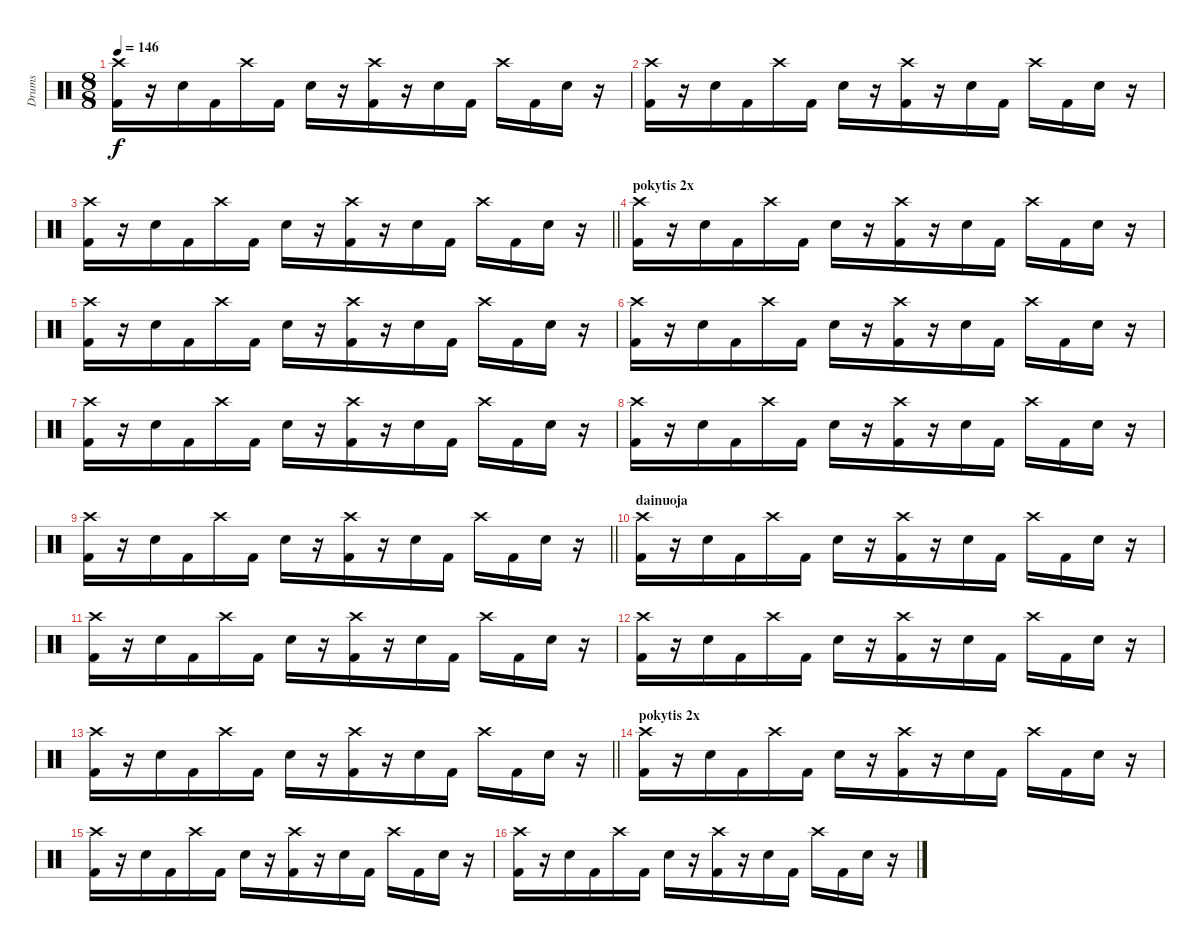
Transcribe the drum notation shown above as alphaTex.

\track ("Drums" "Drums") {instrument percussion}
\staff {score}
\articulation defaults
\ts (8 8)
\tempo 146
\clef neutral
\ks c
("Crash high (hit)" "Kick (hit) 2").16{dy f} r.16 "Snare (hit) 2".16 "Kick (hit) 2".16 "Crash high (hit)".16 "Kick (hit) 2".16 "Snare (hit) 2".16 r.16 ("Crash high (hit)" "Kick (hit) 2").16 r.16 "Snare (hit) 2".16 "Kick (hit) 2".16 "Crash high (hit)".16 "Kick (hit) 2".16 "Snare (hit) 2".16 r.16 |
("Crash high (hit)" "Kick (hit) 2").16 r.16 "Snare (hit) 2".16 "Kick (hit) 2".16 "Crash high (hit)".16 "Kick (hit) 2".16 "Snare (hit) 2".16 r.16 ("Crash high (hit)" "Kick (hit) 2").16 r.16 "Snare (hit) 2".16 "Kick (hit) 2".16 "Crash high (hit)".16 "Kick (hit) 2".16 "Snare (hit) 2".16 r.16 |
\barLineRight lightlight
("Crash high (hit)" "Kick (hit) 2").16 r.16 "Snare (hit) 2".16 "Kick (hit) 2".16 "Crash high (hit)".16 "Kick (hit) 2".16 "Snare (hit) 2".16 r.16 ("Crash high (hit)" "Kick (hit) 2").16 r.16 "Snare (hit) 2".16 "Kick (hit) 2".16 "Crash high (hit)".16 "Kick (hit) 2".16 "Snare (hit) 2".16 r.16 |
\section ("" "pokytis 2x")
("Crash high (hit)" "Kick (hit) 2").16 r.16 "Snare (hit) 2".16 "Kick (hit) 2".16 "Crash high (hit)".16 "Kick (hit) 2".16 "Snare (hit) 2".16 r.16 ("Crash high (hit)" "Kick (hit) 2").16 r.16 "Snare (hit) 2".16 "Kick (hit) 2".16 "Crash high (hit)".16 "Kick (hit) 2".16 "Snare (hit) 2".16 r.16 |
("Crash high (hit)" "Kick (hit) 2").16 r.16 "Snare (hit) 2".16 "Kick (hit) 2".16 "Crash high (hit)".16 "Kick (hit) 2".16 "Snare (hit) 2".16 r.16 ("Crash high (hit)" "Kick (hit) 2").16 r.16 "Snare (hit) 2".16 "Kick (hit) 2".16 "Crash high (hit)".16 "Kick (hit) 2".16 "Snare (hit) 2".16 r.16 |
("Crash high (hit)" "Kick (hit) 2").16 r.16 "Snare (hit) 2".16 "Kick (hit) 2".16 "Crash high (hit)".16 "Kick (hit) 2".16 "Snare (hit) 2".16 r.16 ("Crash high (hit)" "Kick (hit) 2").16 r.16 "Snare (hit) 2".16 "Kick (hit) 2".16 "Crash high (hit)".16 "Kick (hit) 2".16 "Snare (hit) 2".16 r.16 |
("Crash high (hit)" "Kick (hit) 2").16 r.16 "Snare (hit) 2".16 "Kick (hit) 2".16 "Crash high (hit)".16 "Kick (hit) 2".16 "Snare (hit) 2".16 r.16 ("Crash high (hit)" "Kick (hit) 2").16 r.16 "Snare (hit) 2".16 "Kick (hit) 2".16 "Crash high (hit)".16 "Kick (hit) 2".16 "Snare (hit) 2".16 r.16 |
("Crash high (hit)" "Kick (hit) 2").16 r.16 "Snare (hit) 2".16 "Kick (hit) 2".16 "Crash high (hit)".16 "Kick (hit) 2".16 "Snare (hit) 2".16 r.16 ("Crash high (hit)" "Kick (hit) 2").16 r.16 "Snare (hit) 2".16 "Kick (hit) 2".16 "Crash high (hit)".16 "Kick (hit) 2".16 "Snare (hit) 2".16 r.16 |
\barLineRight lightlight
("Crash high (hit)" "Kick (hit) 2").16 r.16 "Snare (hit) 2".16 "Kick (hit) 2".16 "Crash high (hit)".16 "Kick (hit) 2".16 "Snare (hit) 2".16 r.16 ("Crash high (hit)" "Kick (hit) 2").16 r.16 "Snare (hit) 2".16 "Kick (hit) 2".16 "Crash high (hit)".16 "Kick (hit) 2".16 "Snare (hit) 2".16 r.16 |
\section ("" "dainuoja")
("Crash high (hit)" "Kick (hit) 2").16 r.16 "Snare (hit) 2".16 "Kick (hit) 2".16 "Crash high (hit)".16 "Kick (hit) 2".16 "Snare (hit) 2".16 r.16 ("Crash high (hit)" "Kick (hit) 2").16 r.16 "Snare (hit) 2".16 "Kick (hit) 2".16 "Crash high (hit)".16 "Kick (hit) 2".16 "Snare (hit) 2".16 r.16 |
("Crash high (hit)" "Kick (hit) 2").16 r.16 "Snare (hit) 2".16 "Kick (hit) 2".16 "Crash high (hit)".16 "Kick (hit) 2".16 "Snare (hit) 2".16 r.16 ("Crash high (hit)" "Kick (hit) 2").16 r.16 "Snare (hit) 2".16 "Kick (hit) 2".16 "Crash high (hit)".16 "Kick (hit) 2".16 "Snare (hit) 2".16 r.16 |
("Crash high (hit)" "Kick (hit) 2").16 r.16 "Snare (hit) 2".16 "Kick (hit) 2".16 "Crash high (hit)".16 "Kick (hit) 2".16 "Snare (hit) 2".16 r.16 ("Crash high (hit)" "Kick (hit) 2").16 r.16 "Snare (hit) 2".16 "Kick (hit) 2".16 "Crash high (hit)".16 "Kick (hit) 2".16 "Snare (hit) 2".16 r.16 |
\barLineRight lightlight
("Crash high (hit)" "Kick (hit) 2").16 r.16 "Snare (hit) 2".16 "Kick (hit) 2".16 "Crash high (hit)".16 "Kick (hit) 2".16 "Snare (hit) 2".16 r.16 ("Crash high (hit)" "Kick (hit) 2").16 r.16 "Snare (hit) 2".16 "Kick (hit) 2".16 "Crash high (hit)".16 "Kick (hit) 2".16 "Snare (hit) 2".16 r.16 |
\section ("" "pokytis 2x")
("Crash high (hit)" "Kick (hit) 2").16 r.16 "Snare (hit) 2".16 "Kick (hit) 2".16 "Crash high (hit)".16 "Kick (hit) 2".16 "Snare (hit) 2".16 r.16 ("Crash high (hit)" "Kick (hit) 2").16 r.16 "Snare (hit) 2".16 "Kick (hit) 2".16 "Crash high (hit)".16 "Kick (hit) 2".16 "Snare (hit) 2".16 r.16 |
("Crash high (hit)" "Kick (hit) 2").16 r.16 "Snare (hit) 2".16 "Kick (hit) 2".16 "Crash high (hit)".16 "Kick (hit) 2".16 "Snare (hit) 2".16 r.16 ("Crash high (hit)" "Kick (hit) 2").16 r.16 "Snare (hit) 2".16 "Kick (hit) 2".16 "Crash high (hit)".16 "Kick (hit) 2".16 "Snare (hit) 2".16 r.16 |
("Crash high (hit)" "Kick (hit) 2").16 r.16 "Snare (hit) 2".16 "Kick (hit) 2".16 "Crash high (hit)".16 "Kick (hit) 2".16 "Snare (hit) 2".16 r.16 ("Crash high (hit)" "Kick (hit) 2").16 r.16 "Snare (hit) 2".16 "Kick (hit) 2".16 "Crash high (hit)".16 "Kick (hit) 2".16 "Snare (hit) 2".16 r.16
